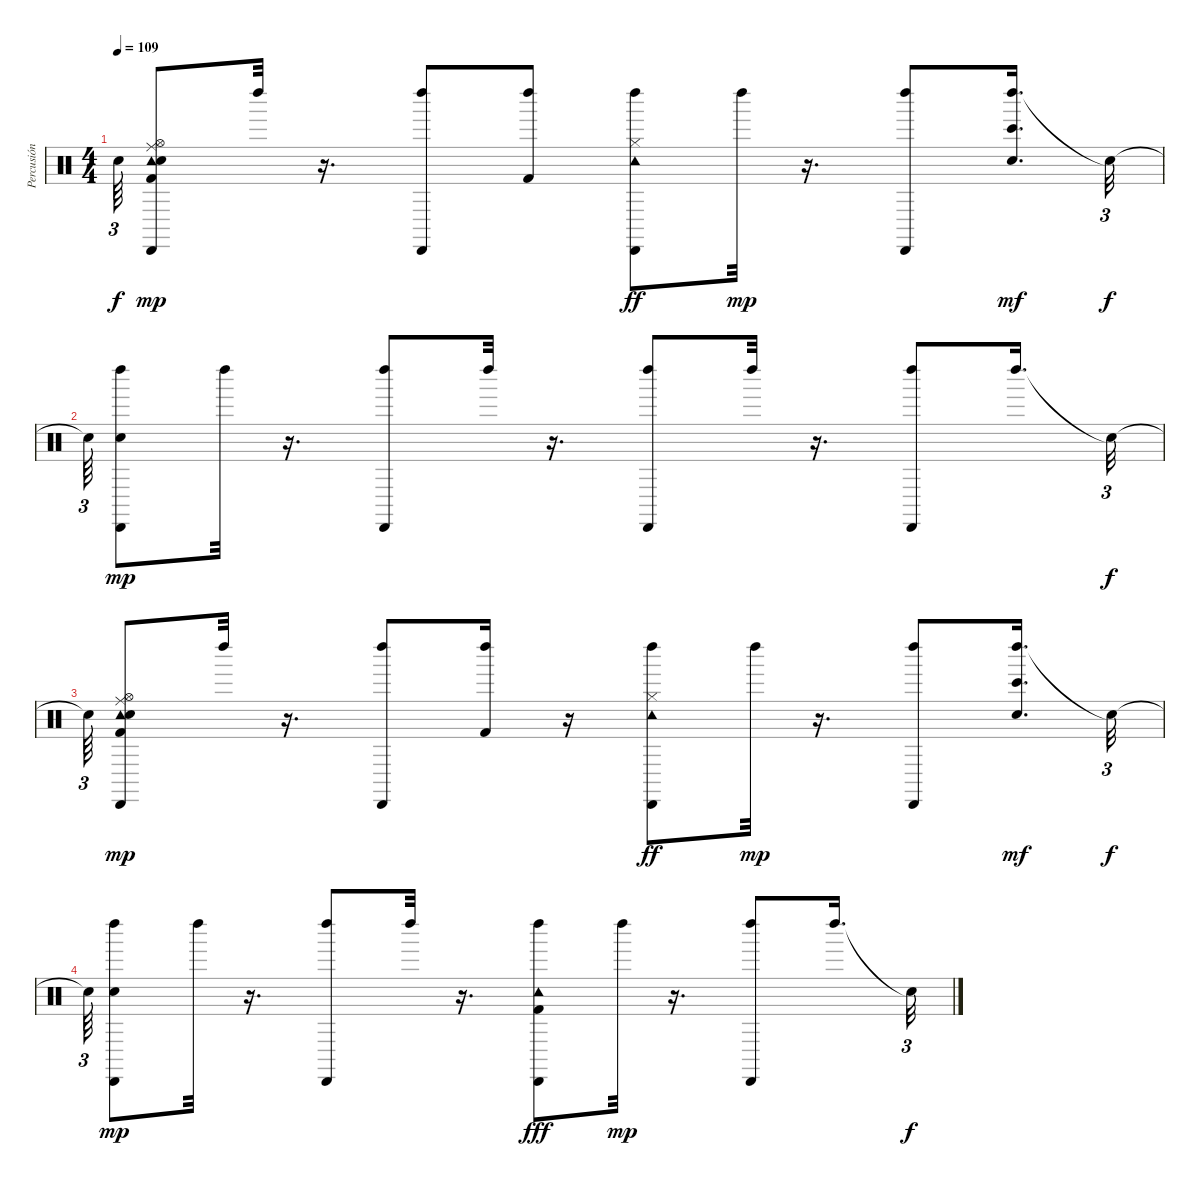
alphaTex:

\track ("Percusión" "Percusión") {instrument percussion}
\staff {score}
\articulation defaults
\ts (4 4)
\tempo 109
\clef neutral
\ks c "Snare (hit)"{t}.64{tu (3 2) dy f}
("Ride (middle)" "Kick (hit) 2" "Hi-Hat (open)" "Tambourine (hit)" "Snare (hit)" "Cabasa (hit)").8{dy mp} "Left Maraca (hit)".32 r.16{d} ("Cabasa (hit)" "Left Maraca (hit)").8 ("Kick (hit) 2" "Left Maraca (hit)").8 ("Left Maraca (hit)" "Cabasa (hit)" "Hi-Hat (closed)" "Tambourine (hit)").8{dy ff} "Left Maraca (hit)".32{dy mp} r.16{d} ("Cabasa (hit)" "Left Maraca (hit)").8 ("Left Maraca (hit)" "Snare (hit)" "Bongo High (hit)").16{d dy mf} "Snare (hit)"{t}.32{tu (3 2) dy f} |
"Snare (hit)"{t}.64{tu (3 2)} ("Left Maraca (hit)" "Snare (hit)" "Cabasa (hit)").8{dy mp} "Left Maraca (hit)".32 r.16{d} ("Left Maraca (hit)" "Cabasa (hit)").8 "Left Maraca (hit)".32 r.16{d} ("Cabasa (hit)" "Left Maraca (hit)").8 "Left Maraca (hit)".32 r.16{d} ("Cabasa (hit)" "Left Maraca (hit)").8 "Left Maraca (hit)".16{d} "Snare (hit)"{t}.32{tu (3 2) dy f} |
"Snare (hit)"{t}.64{tu (3 2)} ("Ride (middle)" "Kick (hit) 2" "Hi-Hat (open)" "Tambourine (hit)" "Snare (hit)" "Cabasa (hit)").8{dy mp} "Left Maraca (hit)".32 r.16{d} ("Cabasa (hit)" "Left Maraca (hit)").8 ("Kick (hit) 2" "Left Maraca (hit)").16 r.16 ("Left Maraca (hit)" "Cabasa (hit)" "Hi-Hat (closed)" "Tambourine (hit)").8{dy ff} "Left Maraca (hit)".32{dy mp} r.16{d} ("Cabasa (hit)" "Left Maraca (hit)").8 ("Left Maraca (hit)" "Snare (hit)" "Bongo High (hit)").16{d dy mf} "Snare (hit)"{t}.32{tu (3 2) dy f} |
"Snare (hit)"{t}.64{tu (3 2)} ("Left Maraca (hit)" "Snare (hit)" "Cabasa (hit)").8{dy mp} "Left Maraca (hit)".32 r.16{d} ("Left Maraca (hit)" "Cabasa (hit)").8 "Left Maraca (hit)".32 r.16{d} ("Cabasa (hit)" "Left Maraca (hit)" "Kick (hit) 2" "Tambourine (hit)").8{dy fff} "Left Maraca (hit)".32{dy mp} r.16{d} ("Cabasa (hit)" "Left Maraca (hit)").8 "Left Maraca (hit)".16{d} "Snare (hit)"{t}.32{tu (3 2) dy f}
